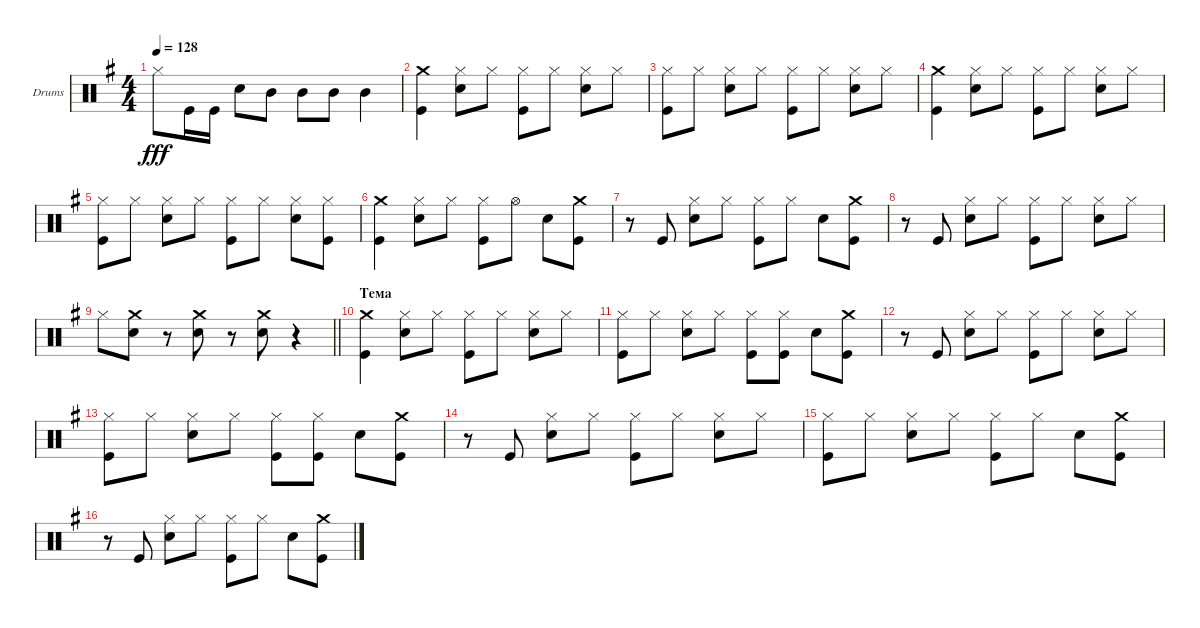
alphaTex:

\bracketExtendMode groupsimilarinstruments
\firstSystemTrackNameOrientation horizontal
\otherSystemsTrackNameOrientation horizontal
\track ("Барабаны" "Drums") {instrument percussion}
\staff {score}
\articulation defaults
\ts (4 4)
\tempo 128
\clef neutral
\ks eminor "Hi-Hat (closed)".8{dy fff} "Kick (hit)".16 "Kick (hit)".16 "Snare (hit) 2".8 "Mid Tom (hit)".8 "Mid Tom (hit)".8 "Mid Tom (hit)".8 "Mid Tom (hit)".4
|
("Crash medium (hit)" "Kick (hit)").4 ("Hi-Hat (closed)" "Snare (hit) 2").8 "Hi-Hat (closed)".8 ("Hi-Hat (closed)" "Kick (hit)").8 "Hi-Hat (closed)".8 ("Hi-Hat (closed)" "Snare (hit) 2").8 "Hi-Hat (closed)".8 |
("Hi-Hat (closed)" "Kick (hit)").8 "Hi-Hat (closed)".8 ("Hi-Hat (closed)" "Snare (hit) 2").8 "Hi-Hat (closed)".8 ("Hi-Hat (closed)" "Kick (hit)").8 "Hi-Hat (closed)".8 ("Hi-Hat (closed)" "Snare (hit) 2").8 "Hi-Hat (closed)".8 |
("Crash medium (hit)" "Kick (hit)").4 ("Hi-Hat (closed)" "Snare (hit) 2").8 "Hi-Hat (closed)".8 ("Hi-Hat (closed)" "Kick (hit)").8 "Hi-Hat (closed)".8 ("Hi-Hat (closed)" "Snare (hit) 2").8 "Hi-Hat (closed)".8 |
("Hi-Hat (closed)" "Kick (hit)").8 "Hi-Hat (closed)".8 ("Hi-Hat (closed)" "Snare (hit) 2").8 "Hi-Hat (closed)".8 ("Hi-Hat (closed)" "Kick (hit)").8 "Hi-Hat (closed)".8 ("Hi-Hat (closed)" "Snare (hit) 2").8 ("Hi-Hat (closed)" "Kick (hit)").8 |
("Crash medium (hit)" "Kick (hit)").4 ("Hi-Hat (closed)" "Snare (hit) 2").8 "Hi-Hat (closed)".8 ("Hi-Hat (closed)" "Kick (hit)").8 "Hi-Hat (open)".8 "Snare (hit) 2".8 ("Kick (hit)" "Crash medium (hit)").8 |
r.8 "Kick (hit)".8 ("Hi-Hat (closed)" "Snare (hit) 2").8 "Hi-Hat (closed)".8 ("Hi-Hat (closed)" "Kick (hit)").8 "Hi-Hat (closed)".8 "Snare (hit) 2".8 ("Kick (hit)" "Crash medium (hit)").8 |
r.8 "Kick (hit)".8 ("Hi-Hat (closed)" "Snare (hit) 2").8 "Hi-Hat (closed)".8 ("Hi-Hat (closed)" "Kick (hit)").8 "Hi-Hat (closed)".8 ("Hi-Hat (closed)" "Snare (hit) 2").8 "Hi-Hat (closed)".8 |
\barLineRight lightlight "Hi-Hat (closed)".8
("Snare (hit) 2" "Crash medium (hit)").8 r.8 ("Snare (hit) 2" "Crash medium (hit)").8 r.8 ("Snare (hit) 2" "Crash medium (hit)").8 r.4 |
\section ("" "Тема")
("Crash medium (hit)" "Kick (hit)").4 ("Hi-Hat (closed)" "Snare (hit) 2").8 "Hi-Hat (closed)".8 ("Hi-Hat (closed)" "Kick (hit)").8 "Hi-Hat (closed)".8 ("Hi-Hat (closed)" "Snare (hit) 2").8 "Hi-Hat (closed)".8 |
("Hi-Hat (closed)" "Kick (hit)").8 "Hi-Hat (closed)".8 ("Hi-Hat (closed)" "Snare (hit) 2").8 "Hi-Hat (closed)".8 ("Kick (hit)" "Hi-Hat (closed)").8 ("Hi-Hat (closed)" "Kick (hit)").8 "Snare (hit) 2".8 ("Kick (hit)" "Crash medium (hit)").8 |
r.8 "Kick (hit)".8 ("Hi-Hat (closed)" "Snare (hit) 2").8 "Hi-Hat (closed)".8 ("Hi-Hat (closed)" "Kick (hit)").8 "Hi-Hat (closed)".8 ("Hi-Hat (closed)" "Snare (hit) 2").8 "Hi-Hat (closed)".8 |
("Hi-Hat (closed)" "Kick (hit)").8 "Hi-Hat (closed)".8 ("Hi-Hat (closed)" "Snare (hit) 2").8 "Hi-Hat (closed)".8 ("Kick (hit)" "Hi-Hat (closed)").8 ("Hi-Hat (closed)" "Kick (hit)").8 "Snare (hit) 2".8 ("Kick (hit)" "Crash medium (hit)").8 |
r.8 "Kick (hit)".8 ("Hi-Hat (closed)" "Snare (hit) 2").8 "Hi-Hat (closed)".8 ("Hi-Hat (closed)" "Kick (hit)").8 "Hi-Hat (closed)".8 ("Hi-Hat (closed)" "Snare (hit) 2").8 "Hi-Hat (closed)".8 |
("Hi-Hat (closed)" "Kick (hit)").8 "Hi-Hat (closed)".8 ("Hi-Hat (closed)" "Snare (hit) 2").8 "Hi-Hat (closed)".8 ("Kick (hit)" "Hi-Hat (closed)").8 "Hi-Hat (closed)".8 "Snare (hit) 2".8 ("Kick (hit)" "Crash medium (hit)").8 |
r.8 "Kick (hit)".8 ("Hi-Hat (closed)" "Snare (hit) 2").8 "Hi-Hat (closed)".8 ("Hi-Hat (closed)" "Kick (hit)").8 "Hi-Hat (closed)".8 "Snare (hit) 2".8 ("Kick (hit)" "Crash medium (hit)").8
